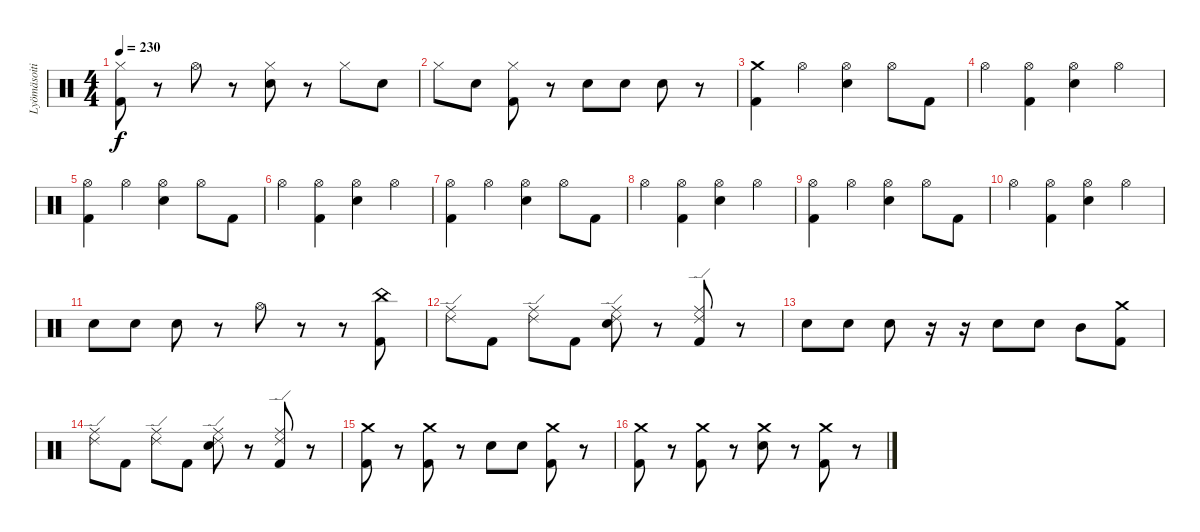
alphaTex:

\track ("Lyömäsoitin" "Lyömäsoiti") {instrument percussion}
\staff {score}
\articulation defaults
\ts (4 4)
\tempo 230
\clef neutral
\ks c
("Hi-Hat (closed)" "Kick (hit) 2").8{dy f} r.8 "Hi-Hat (open)".8 r.8 ("Hi-Hat (closed)" "Electric Snare (hit)").8 r.8 "Hi-Hat (closed)".8 "Electric Snare (hit)".8 |
"Hi-Hat (closed)".8 "Electric Snare (hit)".8 ("Hi-Hat (closed)" "Kick (hit) 2").8 r.8 "Electric Snare (hit)".8 "Electric Snare (hit)".8 "Electric Snare (hit)".8 r.8 |
("Crash medium (hit)" "Kick (hit) 2").4 "Hi-Hat (open)".4 ("Hi-Hat (open)" "Electric Snare (hit)").4 "Hi-Hat (open)".8 "Kick (hit) 2".8 |
"Hi-Hat (open)".4 ("Hi-Hat (open)" "Kick (hit) 2").4 ("Hi-Hat (open)" "Electric Snare (hit)").4 "Hi-Hat (open)".4 |
("Hi-Hat (open)" "Kick (hit) 2").4 "Hi-Hat (open)".4 ("Hi-Hat (open)" "Electric Snare (hit)").4 "Hi-Hat (open)".8 "Kick (hit) 2".8 |
"Hi-Hat (open)".4 ("Hi-Hat (open)" "Kick (hit) 2").4 ("Hi-Hat (open)" "Electric Snare (hit)").4 "Hi-Hat (open)".4 |
("Hi-Hat (open)" "Kick (hit) 2").4 "Hi-Hat (open)".4 ("Hi-Hat (open)" "Electric Snare (hit)").4 "Hi-Hat (open)".8 "Kick (hit) 2".8 |
"Hi-Hat (open)".4 ("Hi-Hat (open)" "Kick (hit) 2").4 ("Hi-Hat (open)" "Electric Snare (hit)").4 "Hi-Hat (open)".4 |
("Hi-Hat (open)" "Kick (hit) 2").4 "Hi-Hat (open)".4 ("Hi-Hat (open)" "Electric Snare (hit)").4 "Hi-Hat (open)".8 "Kick (hit) 2".8 |
"Hi-Hat (open)".4 ("Hi-Hat (open)" "Kick (hit) 2").4 ("Hi-Hat (open)" "Electric Snare (hit)").4 "Hi-Hat (open)".4 |
"Electric Snare (hit)".8 "Electric Snare (hit)".8 "Electric Snare (hit)".8 r.8 "Hi-Hat (open)".8 r.8 r.8 ("China (hit)" "Kick (hit) 2").8 |
("Ride (middle)" "Ride (edge) 2").8 "Kick (hit) 2".8 ("Ride (middle)" "Ride (edge) 2").8 "Kick (hit) 2".8 ("Ride (middle)" "Ride (edge) 2" "Electric Snare (hit)").8 r.8 ("Ride (middle)" "Ride (edge) 2" "Kick (hit) 2").8 r.8 |
"Electric Snare (hit)".8 "Electric Snare (hit)".8 "Electric Snare (hit)".8 r.16 r.16 "Electric Snare (hit)".8 "Electric Snare (hit)".8 "Mid Tom (hit)".8 ("Crash medium (hit)" "Kick (hit) 2").8 |
("Ride (middle)" "Ride (edge) 2").8 "Kick (hit) 2".8 ("Ride (middle)" "Ride (edge) 2").8 "Kick (hit) 2".8 ("Ride (middle)" "Ride (edge) 2" "Electric Snare (hit)").8 r.8 ("Ride (middle)" "Ride (edge) 2" "Kick (hit) 2").8 r.8 |
("Crash medium (hit)" "Kick (hit) 2").8 r.8 ("Crash medium (hit)" "Kick (hit) 2").8 r.8 "Electric Snare (hit)".8 "Electric Snare (hit)".8 ("Crash medium (hit)" "Kick (hit) 2").8 r.8 |
("Crash medium (hit)" "Kick (hit) 2").8 r.8 ("Crash medium (hit)" "Kick (hit) 2").8 r.8 ("Crash medium (hit)" "Electric Snare (hit)").8 r.8 ("Crash medium (hit)" "Kick (hit) 2").8 r.8
